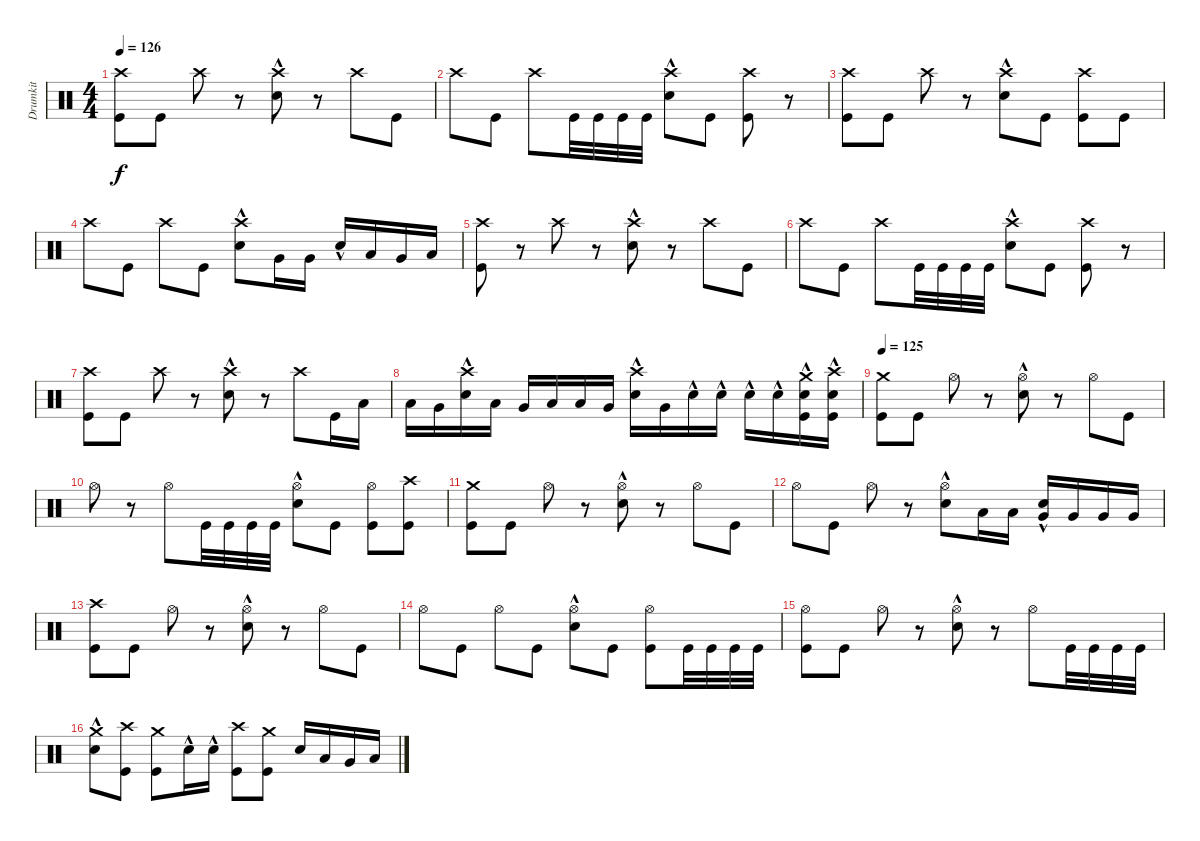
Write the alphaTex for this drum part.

\track ("Drumkit" "Drumkit") {instrument percussion}
\staff {score}
\articulation defaults
\ts (4 4)
\tempo 126
\clef neutral
\ks c
("Kick (hit)" "Crash high (hit)").8{dy f} "Kick (hit)".8 "Crash high (hit)".8 r.8 ("Crash high (hit)" "Snare (hit) 2"{hac}).8 r.8 "Crash high (hit)".8 "Kick (hit)".8 |
"Crash high (hit)".8 "Kick (hit)".8 "Crash high (hit)".8 "Kick (hit)".32 "Kick (hit)".32 "Kick (hit)".32 "Kick (hit)".32 ("Snare (hit) 2"{hac} "Crash high (hit)").8 "Kick (hit)".8 ("Kick (hit)" "Crash high (hit)").8 r.8 |
("Kick (hit)" "Crash high (hit)").8 "Kick (hit)".8 "Crash high (hit)".8 r.8 ("Crash high (hit)" "Snare (hit) 2"{hac}).8 "Kick (hit)".8 ("Crash high (hit)" "Kick (hit)").8 "Kick (hit)".8 |
"Crash high (hit)".8 "Kick (hit)".8 "Crash high (hit)".8 "Kick (hit)".8 ("Snare (hit) 2"{hac} "Crash high (hit)").8 "Very Low Tom (hit)".16 "Very Low Tom (hit)".16 "Snare (hit) 2"{hac}.16 "Low Tom (hit)".16 "Very Low Tom (hit)".16 "Low Floor Tom (hit)".16 |
("Kick (hit)" "Crash high (hit)").8 r.8 "Crash high (hit)".8 r.8 ("Crash high (hit)" "Snare (hit) 2"{hac}).8 r.8 "Crash high (hit)".8 "Kick (hit)".8 |
"Crash high (hit)".8 "Kick (hit)".8 "Crash high (hit)".8 "Kick (hit)".32 "Kick (hit)".32 "Kick (hit)".32 "Kick (hit)".32 ("Snare (hit) 2"{hac} "Crash high (hit)").8 "Kick (hit)".8 ("Kick (hit)" "Crash high (hit)").8 r.8 |
("Kick (hit)" "Crash high (hit)").8 "Kick (hit)".8 "Crash high (hit)".8 r.8 ("Crash high (hit)" "Snare (hit) 2"{hac}).8 r.8 "Crash high (hit)".8 "Kick (hit)".16 "Low Tom (hit)".16 |
"Low Tom (hit)".16 "Very Low Tom (hit)".16 ("Snare (hit) 2"{hac} "Crash high (hit)").16 "Low Tom (hit)".16 "Very Low Tom (hit)".16 "Low Floor Tom (hit)".16 "Low Tom (hit)".16 "Very Low Tom (hit)".16 ("Snare (hit) 2"{hac} "Crash high (hit)").16 "Very Low Tom (hit)".16 "Snare (hit) 2"{hac}.16 "Snare (hit) 2"{hac}.16 "Snare (hit) 2"{hac}.16 "Snare (hit) 2"{hac}.16 ("Snare (hit) 2"{hac} "Kick (hit)" "Crash medium (hit)").16 ("Snare (hit) 2"{hac} "Kick (hit)" "Crash high (hit)").16 |
\tempo 125
("Kick (hit)" "Crash medium (hit)").8 "Kick (hit)".8 "Hi-Hat (open)".8 r.8 ("Hi-Hat (open)" "Snare (hit) 2"{hac}).8 r.8 "Hi-Hat (open)".8 "Kick (hit)".8 |
"Hi-Hat (open)".8 r.8 "Hi-Hat (open)".8 "Kick (hit)".32 "Kick (hit)".32 "Kick (hit)".32 "Kick (hit)".32 ("Snare (hit) 2"{hac} "Hi-Hat (open)").8 "Kick (hit)".8 ("Hi-Hat (open)" "Kick (hit)").8 ("Kick (hit)" "Crash high (hit)").8 |
("Kick (hit)" "Crash medium (hit)").8 "Kick (hit)".8 "Hi-Hat (open)".8 r.8 ("Hi-Hat (open)" "Snare (hit) 2"{hac}).8 r.8 "Hi-Hat (open)".8 "Kick (hit)".8 |
"Hi-Hat (open)".8 "Kick (hit)".8 "Hi-Hat (open)".8 r.8 ("Snare (hit) 2"{hac} "Hi-Hat (open)").8 "Low Tom (hit)".16 "Low Tom (hit)".16 ("Very Low Tom (hit)" "Snare (hit) 2"{hac}).16 "Very Low Tom (hit)".16 "Very Low Tom (hit)".16 "Very Low Tom (hit)".16 |
("Kick (hit)" "Crash high (hit)").8 "Kick (hit)".8 "Hi-Hat (open)".8 r.8 ("Snare (hit) 2"{hac} "Hi-Hat (open)").8 r.8 "Hi-Hat (open)".8 "Kick (hit)".8 |
"Hi-Hat (open)".8 "Kick (hit)".8 "Hi-Hat (open)".8 "Kick (hit)".8 ("Snare (hit) 2"{hac} "Hi-Hat (open)").8 "Kick (hit)".8 ("Hi-Hat (open)" "Kick (hit)").8 "Kick (hit)".32 "Kick (hit)".32 "Kick (hit)".32 "Kick (hit)".32 |
("Kick (hit)" "Hi-Hat (open)").8 "Kick (hit)".8 "Hi-Hat (open)".8 r.8 ("Snare (hit) 2"{hac} "Hi-Hat (open)").8 r.8 "Hi-Hat (open)".8 "Kick (hit)".32 "Kick (hit)".32 "Kick (hit)".32 "Kick (hit)".32 |
("Snare (hit) 2"{hac} "Crash medium (hit)").8 ("Kick (hit)" "Crash high (hit)").8 ("Kick (hit)" "Crash medium (hit)").8 "Snare (hit) 2"{hac}.16 "Snare (hit) 2"{hac}.16 ("Kick (hit)" "Crash high (hit)").8 ("Kick (hit)" "Crash medium (hit)").8 "Snare (hit) 2".16 "Low Tom (hit)".16 "Very Low Tom (hit)".16 "Low Floor Tom (hit)".16
